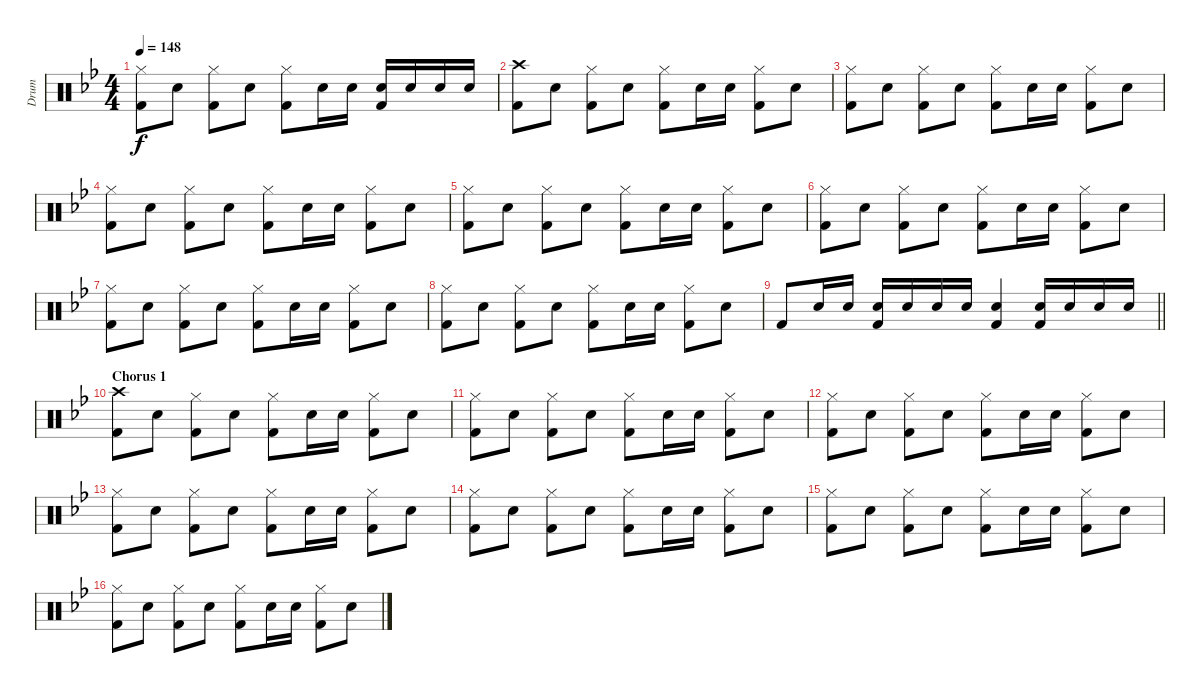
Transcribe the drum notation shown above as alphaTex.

\track ("Drum" "Drum") {instrument percussion}
\staff {score}
\articulation defaults
\ts (4 4)
\tempo 148
\clef neutral
\ks bb
("Hi-Hat (closed)" "Kick (hit) 2").8{dy f} "Snare (hit) 2".8 ("Hi-Hat (closed)" "Kick (hit) 2").8 "Snare (hit) 2".8 ("Hi-Hat (closed)" "Kick (hit) 2").8 "Snare (hit) 2".16 "Snare (hit) 2".16 ("Snare (hit) 2" "Kick (hit) 2").16 "Snare (hit) 2".16 "Snare (hit) 2".16 "Snare (hit) 2".16 |
("Crash high (hit)" "Kick (hit) 2").8 "Snare (hit) 2".8 ("Hi-Hat (closed)" "Kick (hit) 2").8 "Snare (hit) 2".8 ("Hi-Hat (closed)" "Kick (hit) 2").8 "Snare (hit) 2".16 "Snare (hit) 2".16 ("Hi-Hat (closed)" "Kick (hit) 2").8 "Snare (hit) 2".8 |
("Hi-Hat (closed)" "Kick (hit) 2").8 "Snare (hit) 2".8 ("Hi-Hat (closed)" "Kick (hit) 2").8 "Snare (hit) 2".8 ("Hi-Hat (closed)" "Kick (hit) 2").8 "Snare (hit) 2".16 "Snare (hit) 2".16 ("Hi-Hat (closed)" "Kick (hit) 2").8 "Snare (hit) 2".8 |
("Hi-Hat (closed)" "Kick (hit) 2").8 "Snare (hit) 2".8 ("Hi-Hat (closed)" "Kick (hit) 2").8 "Snare (hit) 2".8 ("Hi-Hat (closed)" "Kick (hit) 2").8 "Snare (hit) 2".16 "Snare (hit) 2".16 ("Hi-Hat (closed)" "Kick (hit) 2").8 "Snare (hit) 2".8 |
("Hi-Hat (closed)" "Kick (hit) 2").8 "Snare (hit) 2".8 ("Hi-Hat (closed)" "Kick (hit) 2").8 "Snare (hit) 2".8 ("Hi-Hat (closed)" "Kick (hit) 2").8 "Snare (hit) 2".16 "Snare (hit) 2".16 ("Hi-Hat (closed)" "Kick (hit) 2").8 "Snare (hit) 2".8 |
("Hi-Hat (closed)" "Kick (hit) 2").8 "Snare (hit) 2".8 ("Hi-Hat (closed)" "Kick (hit) 2").8 "Snare (hit) 2".8 ("Hi-Hat (closed)" "Kick (hit) 2").8 "Snare (hit) 2".16 "Snare (hit) 2".16 ("Hi-Hat (closed)" "Kick (hit) 2").8 "Snare (hit) 2".8 |
("Hi-Hat (closed)" "Kick (hit) 2").8 "Snare (hit) 2".8 ("Hi-Hat (closed)" "Kick (hit) 2").8 "Snare (hit) 2".8 ("Hi-Hat (closed)" "Kick (hit) 2").8 "Snare (hit) 2".16 "Snare (hit) 2".16 ("Hi-Hat (closed)" "Kick (hit) 2").8 "Snare (hit) 2".8 |
("Hi-Hat (closed)" "Kick (hit) 2").8 "Snare (hit) 2".8 ("Hi-Hat (closed)" "Kick (hit) 2").8 "Snare (hit) 2".8 ("Hi-Hat (closed)" "Kick (hit) 2").8 "Snare (hit) 2".16 "Snare (hit) 2".16 ("Hi-Hat (closed)" "Kick (hit) 2").8 "Snare (hit) 2".8 |
\barLineRight lightlight "Kick (hit) 2".8 "Snare (hit) 2".16 "Snare (hit) 2".16
("Snare (hit) 2" "Kick (hit) 2").16 "Snare (hit) 2".16 "Snare (hit) 2".16 "Snare (hit) 2".16 ("Snare (hit) 2" "Kick (hit) 2").4 ("Snare (hit) 2" "Kick (hit) 2").16 "Snare (hit) 2".16 "Snare (hit) 2".16 "Snare (hit) 2".16 |
\section ("" "Chorus 1")
("Crash high (hit)" "Kick (hit) 2").8 "Snare (hit) 2".8 ("Hi-Hat (closed)" "Kick (hit) 2").8 "Snare (hit) 2".8 ("Hi-Hat (closed)" "Kick (hit) 2").8 "Snare (hit) 2".16 "Snare (hit) 2".16 ("Hi-Hat (closed)" "Kick (hit) 2").8 "Snare (hit) 2".8 |
("Hi-Hat (closed)" "Kick (hit) 2").8 "Snare (hit) 2".8 ("Hi-Hat (closed)" "Kick (hit) 2").8 "Snare (hit) 2".8 ("Hi-Hat (closed)" "Kick (hit) 2").8 "Snare (hit) 2".16 "Snare (hit) 2".16 ("Hi-Hat (closed)" "Kick (hit) 2").8 "Snare (hit) 2".8 |
("Hi-Hat (closed)" "Kick (hit) 2").8 "Snare (hit) 2".8 ("Hi-Hat (closed)" "Kick (hit) 2").8 "Snare (hit) 2".8 ("Hi-Hat (closed)" "Kick (hit) 2").8 "Snare (hit) 2".16 "Snare (hit) 2".16 ("Hi-Hat (closed)" "Kick (hit) 2").8 "Snare (hit) 2".8 |
("Hi-Hat (closed)" "Kick (hit) 2").8 "Snare (hit) 2".8 ("Hi-Hat (closed)" "Kick (hit) 2").8 "Snare (hit) 2".8 ("Hi-Hat (closed)" "Kick (hit) 2").8 "Snare (hit) 2".16 "Snare (hit) 2".16 ("Hi-Hat (closed)" "Kick (hit) 2").8 "Snare (hit) 2".8 |
("Hi-Hat (closed)" "Kick (hit) 2").8 "Snare (hit) 2".8 ("Hi-Hat (closed)" "Kick (hit) 2").8 "Snare (hit) 2".8 ("Hi-Hat (closed)" "Kick (hit) 2").8 "Snare (hit) 2".16 "Snare (hit) 2".16 ("Hi-Hat (closed)" "Kick (hit) 2").8 "Snare (hit) 2".8 |
("Hi-Hat (closed)" "Kick (hit) 2").8 "Snare (hit) 2".8 ("Hi-Hat (closed)" "Kick (hit) 2").8 "Snare (hit) 2".8 ("Hi-Hat (closed)" "Kick (hit) 2").8 "Snare (hit) 2".16 "Snare (hit) 2".16 ("Hi-Hat (closed)" "Kick (hit) 2").8 "Snare (hit) 2".8 |
("Hi-Hat (closed)" "Kick (hit) 2").8 "Snare (hit) 2".8 ("Hi-Hat (closed)" "Kick (hit) 2").8 "Snare (hit) 2".8 ("Hi-Hat (closed)" "Kick (hit) 2").8 "Snare (hit) 2".16 "Snare (hit) 2".16 ("Hi-Hat (closed)" "Kick (hit) 2").8 "Snare (hit) 2".8
